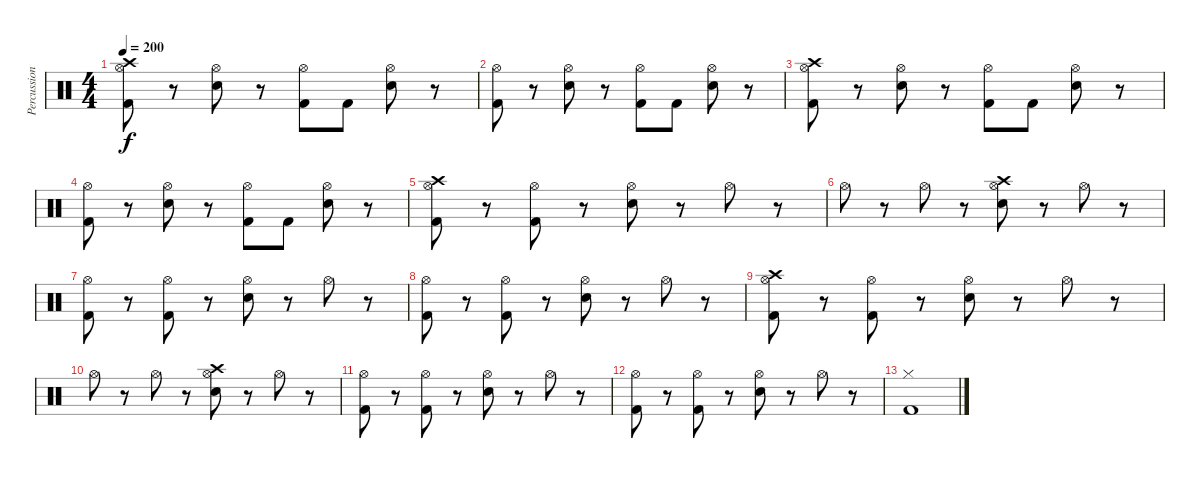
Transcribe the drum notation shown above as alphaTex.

\track ("Percussioni" "Percussion") {instrument percussion}
\staff {score}
\articulation defaults
\ts (4 4)
\tempo 200
\clef neutral
\ks c
("Crash high (hit)" "Kick (hit) 2" "Hi-Hat (open)").8{dy f} r.8 ("Snare (hit) 2" "Hi-Hat (open)").8 r.8 ("Kick (hit) 2" "Hi-Hat (open)").8 "Kick (hit) 2".8 ("Snare (hit) 2" "Hi-Hat (open)").8 r.8 |
("Kick (hit) 2" "Hi-Hat (open)").8 r.8 ("Snare (hit) 2" "Hi-Hat (open)").8 r.8 ("Kick (hit) 2" "Hi-Hat (open)").8 "Kick (hit) 2".8 ("Snare (hit) 2" "Hi-Hat (open)").8 r.8 |
("Crash high (hit)" "Kick (hit) 2" "Hi-Hat (open)").8 r.8 ("Snare (hit) 2" "Hi-Hat (open)").8 r.8 ("Kick (hit) 2" "Hi-Hat (open)").8 "Kick (hit) 2".8 ("Snare (hit) 2" "Hi-Hat (open)").8 r.8 |
("Kick (hit) 2" "Hi-Hat (open)").8 r.8 ("Snare (hit) 2" "Hi-Hat (open)").8 r.8 ("Kick (hit) 2" "Hi-Hat (open)").8 "Kick (hit) 2".8 ("Snare (hit) 2" "Hi-Hat (open)").8 r.8 |
("Crash high (hit)" "Kick (hit) 2" "Hi-Hat (open)").8 r.8 ("Kick (hit) 2" "Hi-Hat (open)").8 r.8 ("Snare (hit) 2" "Hi-Hat (open)").8 r.8 "Hi-Hat (open)".8 r.8 |
"Hi-Hat (open)".8 r.8 "Hi-Hat (open)".8 r.8 ("Crash high (hit)" "Snare (hit) 2" "Hi-Hat (open)").8 r.8 "Hi-Hat (open)".8 r.8 |
("Kick (hit) 2" "Hi-Hat (open)").8 r.8 ("Kick (hit) 2" "Hi-Hat (open)").8 r.8 ("Snare (hit) 2" "Hi-Hat (open)").8 r.8 "Hi-Hat (open)".8 r.8 |
("Kick (hit) 2" "Hi-Hat (open)").8 r.8 ("Kick (hit) 2" "Hi-Hat (open)").8 r.8 ("Snare (hit) 2" "Hi-Hat (open)").8 r.8 "Hi-Hat (open)".8 r.8 |
("Crash high (hit)" "Kick (hit) 2" "Hi-Hat (open)").8 r.8 ("Kick (hit) 2" "Hi-Hat (open)").8 r.8 ("Snare (hit) 2" "Hi-Hat (open)").8 r.8 "Hi-Hat (open)".8 r.8 |
"Hi-Hat (open)".8 r.8 "Hi-Hat (open)".8 r.8 ("Crash high (hit)" "Snare (hit) 2" "Hi-Hat (open)").8 r.8 "Hi-Hat (open)".8 r.8 |
("Kick (hit) 2" "Hi-Hat (open)").8 r.8 ("Kick (hit) 2" "Hi-Hat (open)").8 r.8 ("Snare (hit) 2" "Hi-Hat (open)").8 r.8 "Hi-Hat (open)".8 r.8 |
("Kick (hit) 2" "Hi-Hat (open)").8 r.8 ("Kick (hit) 2" "Hi-Hat (open)").8 r.8 ("Snare (hit) 2" "Hi-Hat (open)").8 r.8 "Hi-Hat (open)".8 r.8 |
("Kick (hit) 2" "Hi-Hat (closed)").1
